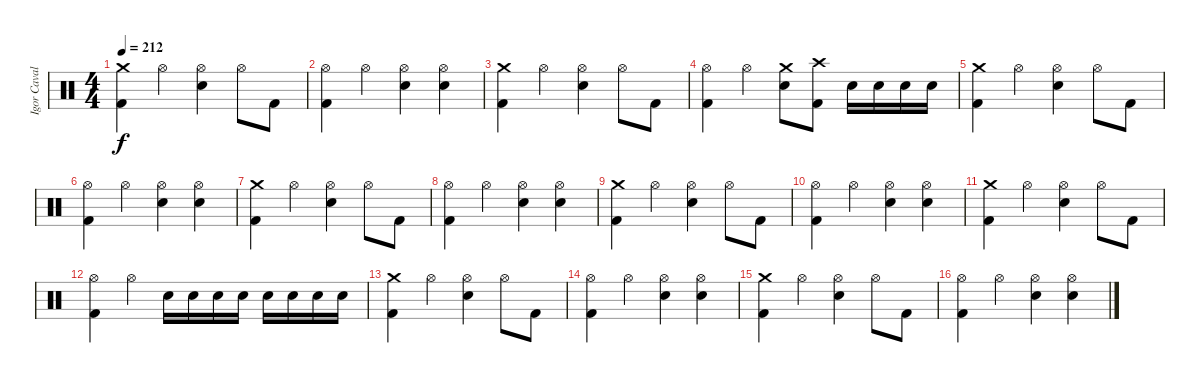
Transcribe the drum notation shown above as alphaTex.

\track ("Igor Cavalera" "Igor Caval") {instrument percussion}
\staff {score}
\articulation defaults
\ts (4 4)
\tempo 212
\clef neutral
\ks c
("Crash medium (hit)" "Kick (hit) 2").4{dy f} "Hi-Hat (open)".4 ("Snare (hit) 2" "Hi-Hat (open)").4 "Hi-Hat (open)".8 "Kick (hit) 2".8 |
("Kick (hit) 2" "Hi-Hat (open)").4 "Hi-Hat (open)".4 ("Snare (hit) 2" "Hi-Hat (open)").4 ("Snare (hit) 2" "Hi-Hat (open)").4 |
("Crash medium (hit)" "Kick (hit) 2").4 "Hi-Hat (open)".4 ("Snare (hit) 2" "Hi-Hat (open)").4 "Hi-Hat (open)".8 "Kick (hit) 2".8 |
("Kick (hit) 2" "Hi-Hat (open)").4 "Hi-Hat (open)".4 ("Snare (hit) 2" "Crash medium (hit)").8 ("Kick (hit) 2" "Crash high (hit)").8 "Snare (hit) 2".16 "Snare (hit) 2".16 "Snare (hit) 2".16 "Snare (hit) 2".16 |
("Crash medium (hit)" "Kick (hit) 2").4 "Hi-Hat (open)".4 ("Snare (hit) 2" "Hi-Hat (open)").4 "Hi-Hat (open)".8 "Kick (hit) 2".8 |
("Kick (hit) 2" "Hi-Hat (open)").4 "Hi-Hat (open)".4 ("Snare (hit) 2" "Hi-Hat (open)").4 ("Snare (hit) 2" "Hi-Hat (open)").4 |
("Crash medium (hit)" "Kick (hit) 2").4 "Hi-Hat (open)".4 ("Snare (hit) 2" "Hi-Hat (open)").4 "Hi-Hat (open)".8 "Kick (hit) 2".8 |
("Kick (hit) 2" "Hi-Hat (open)").4 "Hi-Hat (open)".4 ("Snare (hit) 2" "Hi-Hat (open)").4 ("Snare (hit) 2" "Hi-Hat (open)").4 |
("Crash medium (hit)" "Kick (hit) 2").4 "Hi-Hat (open)".4 ("Snare (hit) 2" "Hi-Hat (open)").4 "Hi-Hat (open)".8 "Kick (hit) 2".8 |
("Kick (hit) 2" "Hi-Hat (open)").4 "Hi-Hat (open)".4 ("Snare (hit) 2" "Hi-Hat (open)").4 ("Snare (hit) 2" "Hi-Hat (open)").4 |
("Crash medium (hit)" "Kick (hit) 2").4 "Hi-Hat (open)".4 ("Snare (hit) 2" "Hi-Hat (open)").4 "Hi-Hat (open)".8 "Kick (hit) 2".8 |
("Kick (hit) 2" "Hi-Hat (open)").4 "Hi-Hat (open)".4 "Snare (hit) 2".16 "Snare (hit) 2".16 "Snare (hit) 2".16 "Snare (hit) 2".16 "Snare (hit) 2".16 "Snare (hit) 2".16 "Snare (hit) 2".16 "Snare (hit) 2".16 |
("Crash medium (hit)" "Kick (hit) 2").4 "Hi-Hat (open)".4 ("Snare (hit) 2" "Hi-Hat (open)").4 "Hi-Hat (open)".8 "Kick (hit) 2".8 |
("Kick (hit) 2" "Hi-Hat (open)").4 "Hi-Hat (open)".4 ("Snare (hit) 2" "Hi-Hat (open)").4 ("Snare (hit) 2" "Hi-Hat (open)").4 |
("Crash medium (hit)" "Kick (hit) 2").4 "Hi-Hat (open)".4 ("Snare (hit) 2" "Hi-Hat (open)").4 "Hi-Hat (open)".8 "Kick (hit) 2".8 |
("Kick (hit) 2" "Hi-Hat (open)").4 "Hi-Hat (open)".4 ("Snare (hit) 2" "Hi-Hat (open)").4 ("Snare (hit) 2" "Hi-Hat (open)").4
